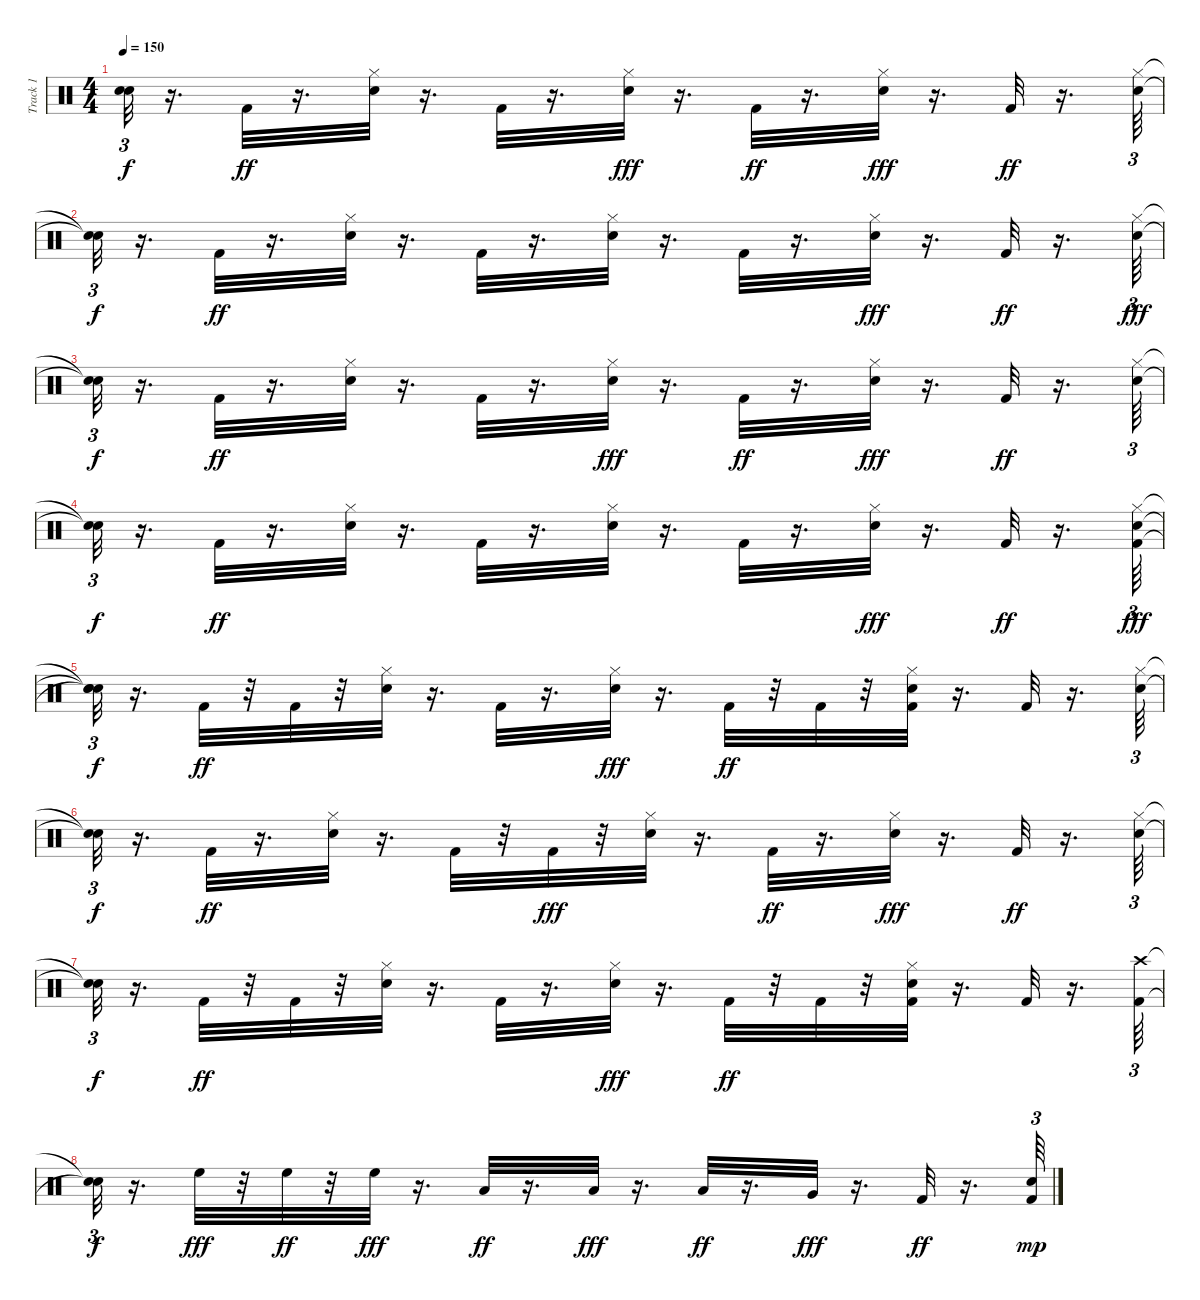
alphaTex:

\track ("Track 1" "Track 1") {instrument percussion}
\staff {score}
\articulation defaults
\ts (4 4)
\tempo 150
\clef neutral
\ks c
("Snare (hit)"{t} "Snare (hit)"{t}).32{tu (3 2) dy f} r.16{d} "Kick (hit) 2".32{dy ff} r.16{d} ("Snare (hit) 2" "Hi-Hat (closed)").32 r.16{d} "Kick (hit) 2".32 r.16{d} ("Hi-Hat (closed)" "Snare (hit) 2").32{dy fff} r.16{d} "Kick (hit) 2".32{dy ff} r.16{d} ("Hi-Hat (closed)" "Snare (hit) 2").32{dy fff} r.16{d} "Kick (hit) 2".32{dy ff} r.16{d} ("Snare (hit) 2" "Hi-Hat (closed)").64{tu (3 2)} |
("Snare (hit)"{t} "Snare (hit)"{t}).32{tu (3 2) dy f} r.16{d} "Kick (hit) 2".32{dy ff} r.16{d} ("Snare (hit) 2" "Hi-Hat (closed)").32 r.16{d} "Kick (hit) 2".32 r.16{d} ("Snare (hit) 2" "Hi-Hat (closed)").32 r.16{d} "Kick (hit) 2".32 r.16{d} ("Hi-Hat (closed)" "Snare (hit) 2").32{dy fff} r.16{d} "Kick (hit) 2".32{dy ff} r.16{d} ("Hi-Hat (closed)" "Snare (hit) 2").64{tu (3 2) dy fff} |
("Snare (hit)"{t} "Snare (hit)"{t}).32{tu (3 2) dy f} r.16{d} "Kick (hit) 2".32{dy ff} r.16{d} ("Snare (hit) 2" "Hi-Hat (closed)").32 r.16{d} "Kick (hit) 2".32 r.16{d} ("Hi-Hat (closed)" "Snare (hit) 2").32{dy fff} r.16{d} "Kick (hit) 2".32{dy ff} r.16{d} ("Hi-Hat (closed)" "Snare (hit) 2").32{dy fff} r.16{d} "Kick (hit) 2".32{dy ff} r.16{d} ("Snare (hit) 2" "Hi-Hat (closed)").64{tu (3 2)} |
("Snare (hit)"{t} "Snare (hit)"{t}).32{tu (3 2) dy f} r.16{d} "Kick (hit) 2".32{dy ff} r.16{d} ("Snare (hit) 2" "Hi-Hat (closed)").32 r.16{d} "Kick (hit) 2".32 r.16{d} ("Snare (hit) 2" "Hi-Hat (closed)").32 r.16{d} "Kick (hit) 2".32 r.16{d} ("Hi-Hat (closed)" "Snare (hit) 2").32{dy fff} r.16{d} "Kick (hit) 2".32{dy ff} r.16{d} ("Kick (hit) 2" "Hi-Hat (closed)" "Snare (hit) 2").64{tu (3 2) dy fff} |
("Snare (hit)"{t} "Snare (hit)"{t} "Snare (hit)"{t}).32{tu (3 2) dy f} r.16{d} "Kick (hit) 2".32{dy ff} r.32 "Kick (hit) 2".32 r.32 ("Snare (hit) 2" "Hi-Hat (closed)").32 r.16{d} "Kick (hit) 2".32 r.16{d} ("Hi-Hat (closed)" "Snare (hit) 2").32{dy fff} r.16{d} "Kick (hit) 2".32{dy ff} r.32 "Kick (hit) 2".32 r.32 ("Hi-Hat (closed)" "Snare (hit) 2" "Kick (hit) 2").32 r.16{d} "Kick (hit) 2".32 r.16{d} ("Snare (hit) 2" "Hi-Hat (closed)").64{tu (3 2)} |
("Snare (hit)"{t} "Snare (hit)"{t}).32{tu (3 2) dy f} r.16{d} "Kick (hit) 2".32{dy ff} r.16{d} ("Snare (hit) 2" "Hi-Hat (closed)").32 r.16{d} "Kick (hit) 2".32 r.32 "Kick (hit) 2".32{dy fff} r.32 ("Hi-Hat (closed)" "Snare (hit) 2").32 r.16{d} "Kick (hit) 2".32{dy ff} r.16{d} ("Hi-Hat (closed)" "Snare (hit) 2").32{dy fff} r.16{d} "Kick (hit) 2".32{dy ff} r.16{d} ("Snare (hit) 2" "Hi-Hat (closed)").64{tu (3 2)} |
("Snare (hit)"{t} "Snare (hit)"{t}).32{tu (3 2) dy f} r.16{d} "Kick (hit) 2".32{dy ff} r.32 "Kick (hit) 2".32 r.32 ("Snare (hit) 2" "Hi-Hat (closed)").32 r.16{d} "Kick (hit) 2".32 r.16{d} ("Hi-Hat (closed)" "Snare (hit) 2").32{dy fff} r.16{d} "Kick (hit) 2".32{dy ff} r.32 "Kick (hit) 2".32 r.32 ("Hi-Hat (closed)" "Snare (hit) 2" "Kick (hit) 2").32 r.16{d} "Kick (hit) 2".32 r.16{d} ("Kick (hit) 2" "Crash high (hit)").64{tu (3 2)} |
("Snare (hit)"{t} "Snare (hit)"{t}).32{tu (3 2) dy f} r.16{d} "High Floor Tom (hit)".32{dy fff} r.32 "High Floor Tom (hit)".32{dy ff} r.32 "High Floor Tom (hit)".32{dy fff} r.16{d} "Low Tom (hit)".32{dy ff} r.16{d} "Low Tom (hit)".32{dy fff} r.16{d} "Low Tom (hit)".32{dy ff} r.16{d} "Very Low Tom (hit)".32{dy fff} r.16{d} "Kick (hit) 2".32{dy ff} r.16{d} ("Kick (hit) 2" "Snare (hit)").64{tu (3 2) dy mp}
